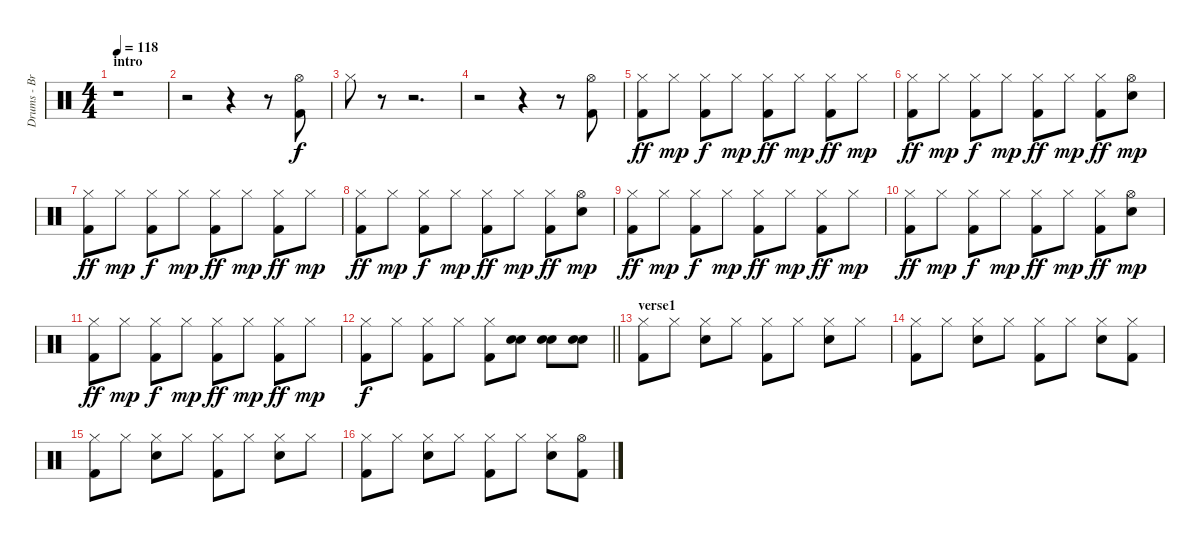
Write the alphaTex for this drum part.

\track ("Drums - Brian Young" "Drums - Br") {instrument percussion}
\staff {score}
\articulation defaults
\ts (4 4)
\section ("" "intro")
\tempo 118
\clef neutral
\ks c
r.1{dy f} |
r.2 r.4 r.8 ("Hi-Hat (open)" "Kick (hit) 2").8 |
"Hi-Hat (closed)".8 r.8 r.2{d} |
r.2 r.4 r.8 ("Hi-Hat (open)" "Kick (hit) 2").8 |
("Hi-Hat (closed)" "Kick (hit) 2").8{dy ff} "Hi-Hat (closed)".8{dy mp} ("Hi-Hat (closed)" "Kick (hit) 2").8{dy f} "Hi-Hat (closed)".8{dy mp} ("Hi-Hat (closed)" "Kick (hit) 2").8{dy ff} "Hi-Hat (closed)".8{dy mp} ("Hi-Hat (closed)" "Kick (hit) 2").8{dy ff} "Hi-Hat (closed)".8{dy mp} |
("Hi-Hat (closed)" "Kick (hit) 2").8{dy ff} "Hi-Hat (closed)".8{dy mp} ("Hi-Hat (closed)" "Kick (hit) 2").8{dy f} "Hi-Hat (closed)".8{dy mp} ("Hi-Hat (closed)" "Kick (hit) 2").8{dy ff} "Hi-Hat (closed)".8{dy mp} ("Hi-Hat (closed)" "Kick (hit) 2").8{dy ff} ("Hi-Hat (open)" "Electric Snare (hit)").8{dy mp} |
("Hi-Hat (closed)" "Kick (hit) 2").8{dy ff} "Hi-Hat (closed)".8{dy mp} ("Hi-Hat (closed)" "Kick (hit) 2").8{dy f} "Hi-Hat (closed)".8{dy mp} ("Hi-Hat (closed)" "Kick (hit) 2").8{dy ff} "Hi-Hat (closed)".8{dy mp} ("Hi-Hat (closed)" "Kick (hit) 2").8{dy ff} "Hi-Hat (closed)".8{dy mp} |
("Hi-Hat (closed)" "Kick (hit) 2").8{dy ff} "Hi-Hat (closed)".8{dy mp} ("Hi-Hat (closed)" "Kick (hit) 2").8{dy f} "Hi-Hat (closed)".8{dy mp} ("Hi-Hat (closed)" "Kick (hit) 2").8{dy ff} "Hi-Hat (closed)".8{dy mp} ("Hi-Hat (closed)" "Kick (hit) 2").8{dy ff} ("Hi-Hat (open)" "Electric Snare (hit)").8{dy mp} |
("Hi-Hat (closed)" "Kick (hit) 2").8{dy ff} "Hi-Hat (closed)".8{dy mp} ("Hi-Hat (closed)" "Kick (hit) 2").8{dy f} "Hi-Hat (closed)".8{dy mp} ("Hi-Hat (closed)" "Kick (hit) 2").8{dy ff} "Hi-Hat (closed)".8{dy mp} ("Hi-Hat (closed)" "Kick (hit) 2").8{dy ff} "Hi-Hat (closed)".8{dy mp} |
("Hi-Hat (closed)" "Kick (hit) 2").8{dy ff} "Hi-Hat (closed)".8{dy mp} ("Hi-Hat (closed)" "Kick (hit) 2").8{dy f} "Hi-Hat (closed)".8{dy mp} ("Hi-Hat (closed)" "Kick (hit) 2").8{dy ff} "Hi-Hat (closed)".8{dy mp} ("Hi-Hat (closed)" "Kick (hit) 2").8{dy ff} ("Hi-Hat (open)" "Electric Snare (hit)").8{dy mp} |
("Hi-Hat (closed)" "Kick (hit) 2").8{dy ff} "Hi-Hat (closed)".8{dy mp} ("Hi-Hat (closed)" "Kick (hit) 2").8{dy f} "Hi-Hat (closed)".8{dy mp} ("Hi-Hat (closed)" "Kick (hit) 2").8{dy ff} "Hi-Hat (closed)".8{dy mp} ("Hi-Hat (closed)" "Kick (hit) 2").8{dy ff} "Hi-Hat (closed)".8{dy mp} |
\barLineRight lightlight
("Hi-Hat (closed)" "Kick (hit) 2").8{dy f} "Hi-Hat (closed)".8 ("Hi-Hat (closed)" "Kick (hit) 2").8 "Hi-Hat (closed)".8 ("Hi-Hat (closed)" "Kick (hit) 2").8 ("Hand Clap (hit)" "Electric Snare (hit)").8 ("Hand Clap (hit)" "Electric Snare (hit)").8 ("Hand Clap (hit)" "Electric Snare (hit)").8 |
\section ("" "verse1")
("Hi-Hat (closed)" "Kick (hit) 2").8 "Hi-Hat (closed)".8 ("Hi-Hat (closed)" "Electric Snare (hit)").8 "Hi-Hat (closed)".8 ("Hi-Hat (closed)" "Kick (hit) 2").8 "Hi-Hat (closed)".8 ("Hi-Hat (closed)" "Electric Snare (hit)").8 "Hi-Hat (closed)".8 |
("Hi-Hat (closed)" "Kick (hit) 2").8 "Hi-Hat (closed)".8 ("Hi-Hat (closed)" "Electric Snare (hit)").8 "Hi-Hat (closed)".8 ("Hi-Hat (closed)" "Kick (hit) 2").8 "Hi-Hat (closed)".8 ("Hi-Hat (closed)" "Electric Snare (hit)").8 ("Hi-Hat (closed)" "Kick (hit) 2").8 |
("Hi-Hat (closed)" "Kick (hit) 2").8 "Hi-Hat (closed)".8 ("Hi-Hat (closed)" "Electric Snare (hit)").8 "Hi-Hat (closed)".8 ("Hi-Hat (closed)" "Kick (hit) 2").8 "Hi-Hat (closed)".8 ("Hi-Hat (closed)" "Electric Snare (hit)").8 "Hi-Hat (closed)".8 |
("Hi-Hat (closed)" "Kick (hit) 2").8 "Hi-Hat (closed)".8 ("Hi-Hat (closed)" "Electric Snare (hit)").8 "Hi-Hat (closed)".8 ("Hi-Hat (closed)" "Kick (hit) 2").8 "Hi-Hat (closed)".8 ("Hi-Hat (closed)" "Electric Snare (hit)").8 ("Hi-Hat (open)" "Kick (hit) 2").8
